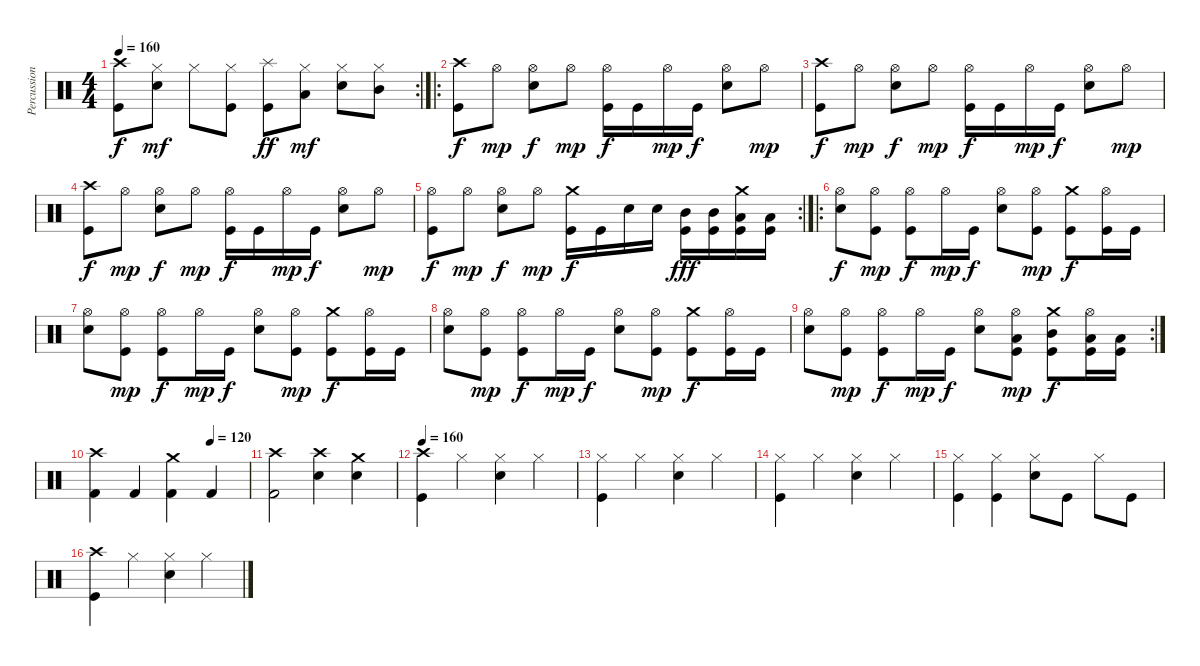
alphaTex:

\track ("Percussion" "Percussion") {instrument percussion}
\staff {score}
\articulation defaults
\rc 2
\ts (4 4)
\tempo 160
\clef neutral
\ks c
("Crash high (hit)" "Kick (hit)").8{dy f} ("Hi-Hat (closed)" "Electric Snare (hit)").8{dy mf} "Hi-Hat (closed)".8 ("Hi-Hat (closed)" "Kick (hit)").8 ("Splash (hit)" "Kick (hit)").8{dy ff} ("Hi-Hat (closed)" "Low Tom (hit)").8{dy mf} ("Hi-Hat (closed)" "Electric Snare (hit)").8 ("Hi-Hat (closed)" "Mid Tom (hit)").8 |
\ro
("Crash high (hit)" "Kick (hit)").8{dy f} "Hi-Hat (open)".8{dy mp} ("Hi-Hat (open)" "Electric Snare (hit)").8{dy f} "Hi-Hat (open)".8{dy mp} ("Hi-Hat (open)" "Kick (hit)").16{dy f} "Kick (hit)".16 "Hi-Hat (open)".16{dy mp} "Kick (hit)".16{dy f} ("Hi-Hat (open)" "Electric Snare (hit)").8 "Hi-Hat (open)".8{dy mp} |
("Crash high (hit)" "Kick (hit)").8{dy f} "Hi-Hat (open)".8{dy mp} ("Hi-Hat (open)" "Electric Snare (hit)").8{dy f} "Hi-Hat (open)".8{dy mp} ("Hi-Hat (open)" "Kick (hit)").16{dy f} "Kick (hit)".16 "Hi-Hat (open)".16{dy mp} "Kick (hit)".16{dy f} ("Hi-Hat (open)" "Electric Snare (hit)").8 "Hi-Hat (open)".8{dy mp} |
("Crash high (hit)" "Kick (hit)").8{dy f} "Hi-Hat (open)".8{dy mp} ("Hi-Hat (open)" "Electric Snare (hit)").8{dy f} "Hi-Hat (open)".8{dy mp} ("Hi-Hat (open)" "Kick (hit)").16{dy f} "Kick (hit)".16 "Hi-Hat (open)".16{dy mp} "Kick (hit)".16{dy f} ("Hi-Hat (open)" "Electric Snare (hit)").8 "Hi-Hat (open)".8{dy mp} |
\rc 2
("Hi-Hat (open)" "Kick (hit)").8{dy f} "Hi-Hat (open)".8{dy mp} ("Hi-Hat (open)" "Electric Snare (hit)").8{dy f} "Hi-Hat (open)".8{dy mp} ("Crash medium (hit)" "Kick (hit)").16{dy f} "Kick (hit)".16 "Electric Snare (hit)".16 "Electric Snare (hit)".16 ("Mid Tom (hit)" "Kick (hit)").16{dy fff} ("Mid Tom (hit)" "Kick (hit)").16 ("Crash medium (hit)" "Low Tom (hit)" "Kick (hit)").16 ("Low Tom (hit)" "Kick (hit)").16 |
\ro
("Hi-Hat (open)" "Electric Snare (hit)").8{dy f} ("Hi-Hat (open)" "Kick (hit)").8{dy mp} ("Hi-Hat (open)" "Kick (hit)").8{dy f} "Hi-Hat (open)".16{dy mp} "Kick (hit)".16{dy f} ("Hi-Hat (open)" "Electric Snare (hit)").8 ("Hi-Hat (open)" "Kick (hit)").8{dy mp} ("Crash medium (hit)" "Kick (hit)").8{dy f} ("Hi-Hat (open)" "Kick (hit)").16 "Kick (hit)".16 |
("Hi-Hat (open)" "Electric Snare (hit)").8 ("Hi-Hat (open)" "Kick (hit)").8{dy mp} ("Hi-Hat (open)" "Kick (hit)").8{dy f} "Hi-Hat (open)".16{dy mp} "Kick (hit)".16{dy f} ("Hi-Hat (open)" "Electric Snare (hit)").8 ("Hi-Hat (open)" "Kick (hit)").8{dy mp} ("Crash medium (hit)" "Kick (hit)").8{dy f} ("Hi-Hat (open)" "Kick (hit)").16 "Kick (hit)".16 |
("Hi-Hat (open)" "Electric Snare (hit)").8 ("Hi-Hat (open)" "Kick (hit)").8{dy mp} ("Hi-Hat (open)" "Kick (hit)").8{dy f} "Hi-Hat (open)".16{dy mp} "Kick (hit)".16{dy f} ("Hi-Hat (open)" "Electric Snare (hit)").8 ("Hi-Hat (open)" "Kick (hit)").8{dy mp} ("Crash medium (hit)" "Kick (hit)").8{dy f} ("Hi-Hat (open)" "Kick (hit)").16 "Kick (hit)".16 |
\rc 2
("Hi-Hat (open)" "Electric Snare (hit)").8 ("Hi-Hat (open)" "Kick (hit)").8{dy mp} ("Hi-Hat (open)" "Kick (hit)").8{dy f} "Hi-Hat (open)".16{dy mp} "Kick (hit)".16{dy f} ("Hi-Hat (open)" "Electric Snare (hit)").8 ("Hi-Hat (open)" "Low Tom (hit)" "Kick (hit)").8{dy mp} ("Crash medium (hit)" "Mid Tom (hit)" "Kick (hit)").8{dy f} ("Hi-Hat (open)" "Low Tom (hit)" "Kick (hit)").16 ("Low Tom (hit)" "Kick (hit)").16 |
\tempo (120 0.75)
("Crash high (hit)" "Kick (hit) 2").4 "Kick (hit) 2".4 ("Crash medium (hit)" "Kick (hit) 2").4 "Kick (hit) 2".4 |
("Crash high (hit)" "Kick (hit) 2").2 ("Crash high (hit)" "Electric Snare (hit)").4 ("Crash medium (hit)" "Electric Snare (hit)").4 |
\tempo 160
("Crash high (hit)" "Kick (hit)").4 "Hi-Hat (closed)".4 ("Hi-Hat (closed)" "Electric Snare (hit)").4 "Hi-Hat (closed)".4 |
("Hi-Hat (closed)" "Kick (hit)").4 "Hi-Hat (closed)".4 ("Hi-Hat (closed)" "Electric Snare (hit)").4 "Hi-Hat (closed)".4 |
("Hi-Hat (closed)" "Kick (hit)").4 "Hi-Hat (closed)".4 ("Hi-Hat (closed)" "Electric Snare (hit)").4 "Hi-Hat (closed)".4 |
("Hi-Hat (closed)" "Kick (hit)").4 ("Hi-Hat (closed)" "Kick (hit)").4 ("Hi-Hat (closed)" "Electric Snare (hit)").8 "Kick (hit)".8 "Hi-Hat (closed)".8 "Kick (hit)".8 |
("Crash high (hit)" "Kick (hit)").4 "Hi-Hat (closed)".4 ("Hi-Hat (closed)" "Electric Snare (hit)").4 "Hi-Hat (closed)".4
